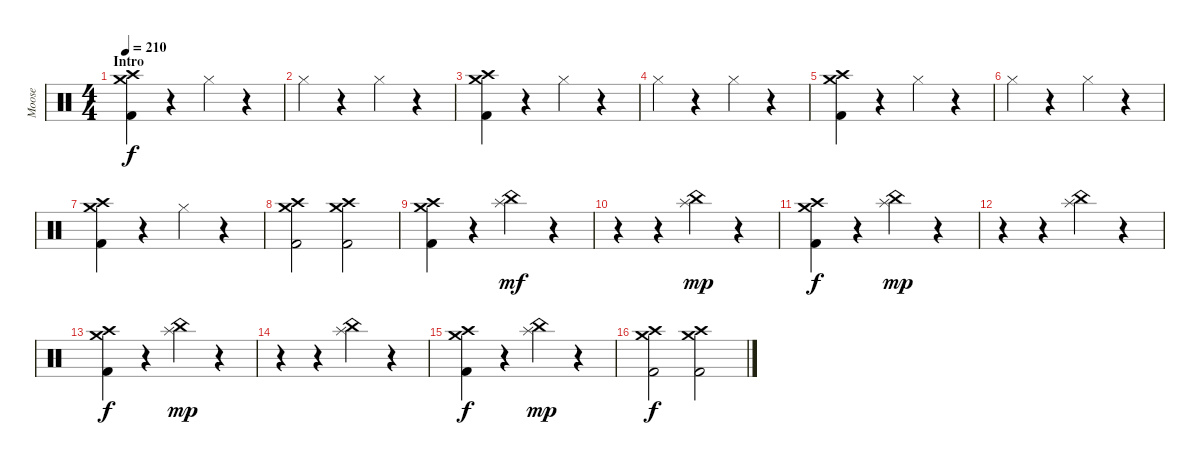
\track ("Moose" "Moose") {instrument percussion}
\staff {score}
\articulation defaults
\ts (4 4)
\section ("" "Intro")
\tempo 210
\clef neutral
\ks c
("Kick (hit) 2" "Crash medium (hit)" "Crash high (hit)").4{dy f} r.4 "Hi-Hat (closed)".4 r.4 |
"Hi-Hat (closed)".4 r.4 "Hi-Hat (closed)".4 r.4 |
("Kick (hit) 2" "Crash medium (hit)" "Crash high (hit)").4 r.4 "Hi-Hat (closed)".4 r.4 |
"Hi-Hat (closed)".4 r.4 "Hi-Hat (closed)".4 r.4 |
("Kick (hit) 2" "Crash medium (hit)" "Crash high (hit)").4 r.4 "Hi-Hat (closed)".4 r.4 |
"Hi-Hat (closed)".4 r.4 "Hi-Hat (closed)".4 r.4 |
("Kick (hit) 2" "Crash medium (hit)" "Crash high (hit)").4 r.4 "Hi-Hat (closed)".4 r.4 |
("Kick (hit) 2" "Crash medium (hit)" "Crash high (hit)").2 ("Kick (hit) 2" "Crash medium (hit)" "Crash high (hit)").2 |
("Kick (hit) 2" "Crash medium (hit)" "Crash high (hit)").4 r.4 ("China (hit)" "Splash (hit)").4{dy mf} r.4 |
r.4 r.4 ("China (hit)" "Splash (hit)").4{dy mp} r.4 |
("Kick (hit) 2" "Crash medium (hit)" "Crash high (hit)").4{dy f} r.4 ("China (hit)" "Splash (hit)").4{dy mp} r.4 |
r.4 r.4 ("China (hit)" "Splash (hit)").4 r.4 |
("Kick (hit) 2" "Crash medium (hit)" "Crash high (hit)").4{dy f} r.4 ("China (hit)" "Splash (hit)").4{dy mp} r.4 |
r.4 r.4 ("China (hit)" "Splash (hit)").4 r.4 |
("Kick (hit) 2" "Crash medium (hit)" "Crash high (hit)").4{dy f} r.4 ("China (hit)" "Splash (hit)").4{dy mp} r.4 |
("Kick (hit) 2" "Crash medium (hit)" "Crash high (hit)").2{dy f} ("Kick (hit) 2" "Crash medium (hit)" "Crash high (hit)").2
